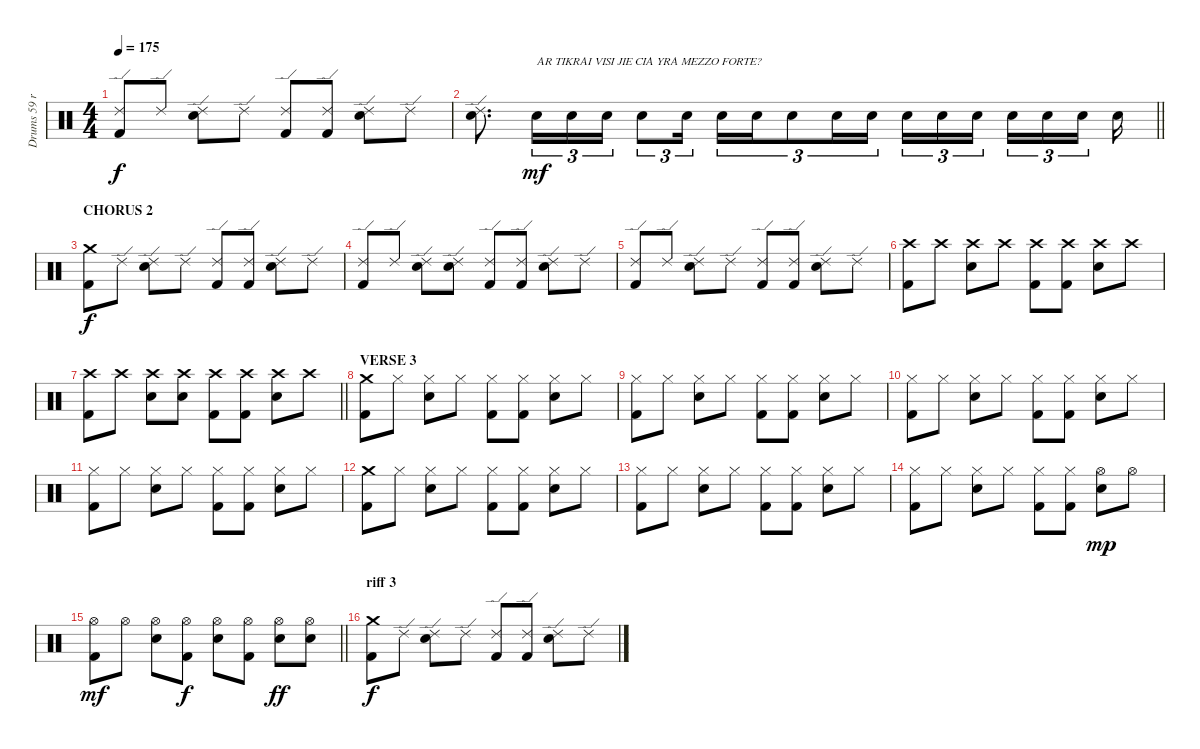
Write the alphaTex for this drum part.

\track ("Drums 59 ride" "Drums 59 r") {instrument percussion}
\staff {score}
\articulation defaults
\ts (4 4)
\tempo 175
\clef neutral
\ks c
("Ride (edge) 2" "Kick (hit) 2").8{dy f} "Ride (edge) 2".8 ("Ride (edge) 2" "Snare (hit) 2").8 "Ride (edge) 2".8 ("Ride (edge) 2" "Kick (hit) 2").8 ("Ride (edge) 2" "Kick (hit) 2").8 ("Ride (edge) 2" "Snare (hit) 2").8 "Ride (edge) 2".8 |
\barLineRight lightlight
("Ride (edge) 2" "Snare (hit) 2").8{d} "Snare (hit) 2".16{tu (3 2) txt "AR TIKRAI VISI JIE CIA YRA MEZZO FORTE?" dy mf} "Snare (hit) 2".16{tu (3 2)} "Snare (hit) 2".16{tu (3 2)} "Snare (hit) 2".8{tu (3 2)} "Snare (hit) 2".16{tu (3 2) beam splitsecondary} "Snare (hit) 2".16{tu (3 2)} "Snare (hit) 2".16{tu (3 2)} "Snare (hit) 2".8{tu (3 2)} "Snare (hit) 2".16{tu (3 2)} "Snare (hit) 2".16{tu (3 2) beam splitsecondary} "Snare (hit) 2".16{tu (3 2)} "Snare (hit) 2".16{tu (3 2)} "Snare (hit) 2".16{tu (3 2) beam splitsecondary} "Snare (hit) 2".16{tu (3 2)} "Snare (hit) 2".16{tu (3 2)} "Snare (hit) 2".16{tu (3 2) beam splitsecondary} "Snare (hit) 2".16 |
\section ("" "CHORUS 2")
("Crash medium (hit)" "Kick (hit) 2").8{dy f} "Ride (edge) 2".8 ("Ride (edge) 2" "Snare (hit) 2").8 "Ride (edge) 2".8 ("Ride (edge) 2" "Kick (hit) 2").8 ("Ride (edge) 2" "Kick (hit) 2").8 ("Ride (edge) 2" "Snare (hit) 2").8 "Ride (edge) 2".8 |
("Ride (edge) 2" "Kick (hit) 2").8 "Ride (edge) 2".8 ("Ride (edge) 2" "Snare (hit) 2").8 ("Ride (edge) 2" "Snare (hit) 2").8 ("Ride (edge) 2" "Kick (hit) 2").8 ("Ride (edge) 2" "Kick (hit) 2").8 ("Ride (edge) 2" "Snare (hit) 2").8 "Ride (edge) 2".8 |
("Ride (edge) 2" "Kick (hit) 2").8 "Ride (edge) 2".8 ("Ride (edge) 2" "Snare (hit) 2").8 "Ride (edge) 2".8 ("Ride (edge) 2" "Kick (hit) 2").8 ("Ride (edge) 2" "Kick (hit) 2").8 ("Ride (edge) 2" "Snare (hit) 2").8 "Ride (edge) 2".8 |
("Crash high (hit)" "Kick (hit) 2").8 "Crash high (hit)".8 ("Crash high (hit)" "Snare (hit) 2").8 "Crash high (hit)".8 ("Crash high (hit)" "Kick (hit) 2").8 ("Crash high (hit)" "Kick (hit) 2").8 ("Crash high (hit)" "Snare (hit) 2").8 "Crash high (hit)".8 |
\barLineRight lightlight
("Crash high (hit)" "Kick (hit) 2").8 "Crash high (hit)".8 ("Crash high (hit)" "Snare (hit) 2").8 ("Crash high (hit)" "Snare (hit) 2").8 ("Crash high (hit)" "Kick (hit) 2").8 ("Crash high (hit)" "Kick (hit) 2").8 ("Crash high (hit)" "Snare (hit) 2").8 "Crash high (hit)".8 |
\section ("" "VERSE 3")
("Crash medium (hit)" "Kick (hit) 2").8 "Hi-Hat (closed)".8 ("Hi-Hat (closed)" "Snare (hit) 2").8 "Hi-Hat (closed)".8 ("Hi-Hat (closed)" "Kick (hit) 2").8 ("Hi-Hat (closed)" "Kick (hit) 2").8 ("Hi-Hat (closed)" "Snare (hit) 2").8 "Hi-Hat (closed)".8 |
("Hi-Hat (closed)" "Kick (hit) 2").8 "Hi-Hat (closed)".8 ("Hi-Hat (closed)" "Snare (hit) 2").8 "Hi-Hat (closed)".8 ("Hi-Hat (closed)" "Kick (hit) 2").8 ("Hi-Hat (closed)" "Kick (hit) 2").8 ("Hi-Hat (closed)" "Snare (hit) 2").8 "Hi-Hat (closed)".8 |
("Hi-Hat (closed)" "Kick (hit) 2").8 "Hi-Hat (closed)".8 ("Hi-Hat (closed)" "Snare (hit) 2").8 "Hi-Hat (closed)".8 ("Hi-Hat (closed)" "Kick (hit) 2").8 ("Hi-Hat (closed)" "Kick (hit) 2").8 ("Hi-Hat (closed)" "Snare (hit) 2").8 "Hi-Hat (closed)".8 |
("Hi-Hat (closed)" "Kick (hit) 2").8 "Hi-Hat (closed)".8 ("Hi-Hat (closed)" "Snare (hit) 2").8 "Hi-Hat (closed)".8 ("Hi-Hat (closed)" "Kick (hit) 2").8 ("Hi-Hat (closed)" "Kick (hit) 2").8 ("Hi-Hat (closed)" "Snare (hit) 2").8 "Hi-Hat (closed)".8 |
("Crash medium (hit)" "Kick (hit) 2").8 "Hi-Hat (closed)".8 ("Hi-Hat (closed)" "Snare (hit) 2").8 "Hi-Hat (closed)".8 ("Hi-Hat (closed)" "Kick (hit) 2").8 ("Hi-Hat (closed)" "Kick (hit) 2").8 ("Hi-Hat (closed)" "Snare (hit) 2").8 "Hi-Hat (closed)".8 |
("Hi-Hat (closed)" "Kick (hit) 2").8 "Hi-Hat (closed)".8 ("Hi-Hat (closed)" "Snare (hit) 2").8 "Hi-Hat (closed)".8 ("Hi-Hat (closed)" "Kick (hit) 2").8 ("Hi-Hat (closed)" "Kick (hit) 2").8 ("Hi-Hat (closed)" "Snare (hit) 2").8 "Hi-Hat (closed)".8 |
("Hi-Hat (closed)" "Kick (hit) 2").8 "Hi-Hat (closed)".8 ("Hi-Hat (closed)" "Snare (hit) 2").8 "Hi-Hat (closed)".8 ("Hi-Hat (closed)" "Kick (hit) 2").8 ("Hi-Hat (closed)" "Kick (hit) 2").8 ("Hi-Hat (open)" "Snare (hit) 2").8{dy mp} "Hi-Hat (open)".8 |
\barLineRight lightlight
("Hi-Hat (open)" "Kick (hit) 2").8{dy mf} "Hi-Hat (open)".8 ("Hi-Hat (open)" "Snare (hit) 2").8 ("Hi-Hat (open)" "Kick (hit) 2").8{dy f} ("Hi-Hat (open)" "Snare (hit) 2").8 ("Hi-Hat (open)" "Kick (hit) 2").8 ("Hi-Hat (open)" "Snare (hit) 2").8{dy ff} ("Hi-Hat (open)" "Snare (hit) 2").8 |
\section ("" "riff 3")
("Crash medium (hit)" "Kick (hit) 2").8{dy f} "Ride (edge) 2".8 ("Ride (edge) 2" "Snare (hit) 2").8 "Ride (edge) 2".8 ("Ride (edge) 2" "Kick (hit) 2").8 ("Ride (edge) 2" "Kick (hit) 2").8 ("Ride (edge) 2" "Snare (hit) 2").8 "Ride (edge) 2".8
